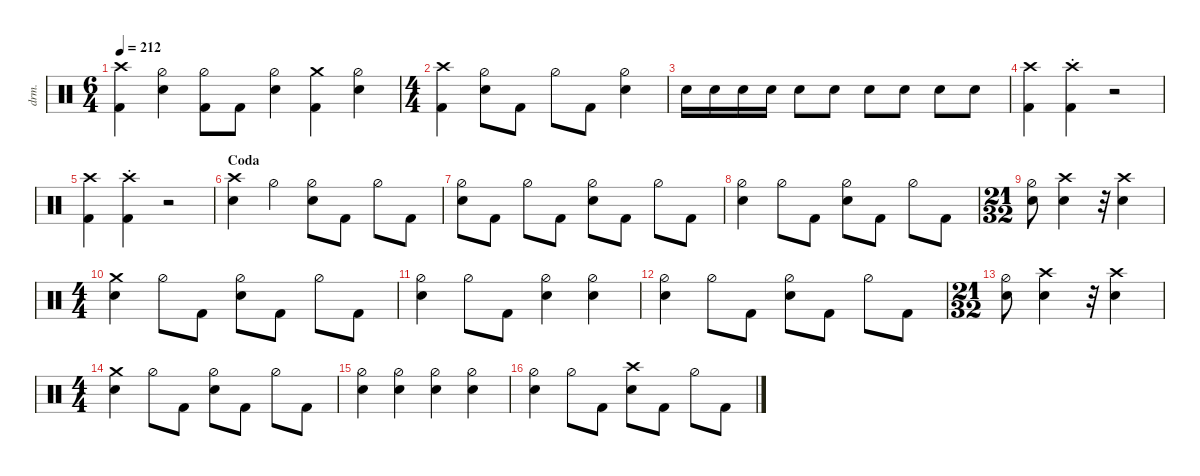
\defaultSystemsLayout 4
\hideDynamics
\bracketExtendMode nobrackets
\track ("Drums" "drm.") {defaultSystemsLayout 4 multiBarRest instrument percussion}
\staff
\articulation defaults
\ts (6 4)
\beaming (8 6 6)
\tempo 212
\clef neutral
\ks c
("Crash high (hit)" "Kick (hit) 2").4{dy f} ("Hi-Hat (half)" "Snare (hit) 2").4 ("Hi-Hat (half)" "Kick (hit) 2").8 "Kick (hit) 2".8 ("Hi-Hat (half)" "Snare (hit) 2").4 ("Kick (hit) 2" "Crash medium (hit)").4 ("Hi-Hat (half)" "Snare (hit) 2").4 |
\ts (4 4)
\beaming (8 2 2 2 2)
("Crash high (hit)" "Kick (hit) 2").4 ("Hi-Hat (half)" "Snare (hit) 2").8 "Kick (hit) 2".8 "Hi-Hat (half)".8 "Kick (hit) 2".8 ("Hi-Hat (half)" "Snare (hit) 2").4 |
"Snare (hit) 2".16 "Snare (hit) 2".16 "Snare (hit) 2".16 "Snare (hit) 2".16 "Snare (hit) 2".8 "Snare (hit) 2".8 "Snare (hit) 2".8 "Snare (hit) 2".8 "Snare (hit) 2".8 "Snare (hit) 2".8 |
("Kick (hit) 2" "Crash high (hit)").4 ("Kick (hit) 2" "Crash high (hit)"{st}).4 r.2 |
("Kick (hit) 2" "Crash high (hit)").4 ("Kick (hit) 2" "Crash high (hit)"{st}).4 r.2 |
\section ("" "Coda")
("Snare (hit) 2" "Crash high (hit)").4 "Hi-Hat (half)".4 ("Hi-Hat (half)" "Snare (hit) 2").8 "Kick (hit) 2".8 "Hi-Hat (half)".8 "Kick (hit) 2".8 |
("Hi-Hat (half)" "Snare (hit) 2").8 "Kick (hit) 2".8 "Hi-Hat (half)".8 "Kick (hit) 2".8 ("Hi-Hat (half)" "Snare (hit) 2").8 "Kick (hit) 2".8 "Hi-Hat (half)".8 "Kick (hit) 2".8 |
("Hi-Hat (half)" "Snare (hit) 2").4 "Hi-Hat (half)".8 "Kick (hit) 2".8 ("Hi-Hat (half)" "Snare (hit) 2").8 "Kick (hit) 2".8 "Hi-Hat (half)".8 "Kick (hit) 2".8 |
\ts (21 32)
\beaming (8 3 2)
("Snare (hit) 2" "Hi-Hat (half)").8 ("Snare (hit) 2" "Crash high (hit)").4 r.32 ("Snare (hit) 2" "Crash high (hit)").4 |
\ts (4 4)
\beaming (8 2 2 2 2)
("Snare (hit) 2" "Crash medium (hit)").4 "Hi-Hat (half)".8 "Kick (hit) 2".8 ("Hi-Hat (half)" "Snare (hit) 2").8 "Kick (hit) 2".8 "Hi-Hat (half)".8 "Kick (hit) 2".8 |
("Hi-Hat (half)" "Snare (hit) 2").4 "Hi-Hat (half)".8 "Kick (hit) 2".8 ("Hi-Hat (half)" "Snare (hit) 2").4 ("Hi-Hat (half)" "Snare (hit) 2").4 |
("Hi-Hat (half)" "Snare (hit) 2").4 "Hi-Hat (half)".8 "Kick (hit) 2".8 ("Hi-Hat (half)" "Snare (hit) 2").8 "Kick (hit) 2".8 "Hi-Hat (half)".8 "Kick (hit) 2".8 |
\ts (21 32)
\beaming (8 3 2)
("Snare (hit) 2" "Hi-Hat (half)").8 ("Snare (hit) 2" "Crash high (hit)").4 r.32 ("Snare (hit) 2" "Crash high (hit)").4 |
\ts (4 4)
\beaming (8 2 2 2 2)
("Snare (hit) 2" "Crash medium (hit)").4 "Hi-Hat (half)".8 "Kick (hit) 2".8 ("Hi-Hat (half)" "Snare (hit) 2").8 "Kick (hit) 2".8 "Hi-Hat (half)".8 "Kick (hit) 2".8 |
("Hi-Hat (half)" "Snare (hit) 2").4 ("Hi-Hat (half)" "Snare (hit) 2").4 ("Hi-Hat (half)" "Snare (hit) 2").4 ("Hi-Hat (half)" "Snare (hit) 2").4 |
("Hi-Hat (half)" "Snare (hit) 2").4 "Hi-Hat (half)".8 "Kick (hit) 2".8 ("Snare (hit) 2" "Crash high (hit)").8 "Kick (hit) 2".8 "Hi-Hat (half)".8 "Kick (hit) 2".8
